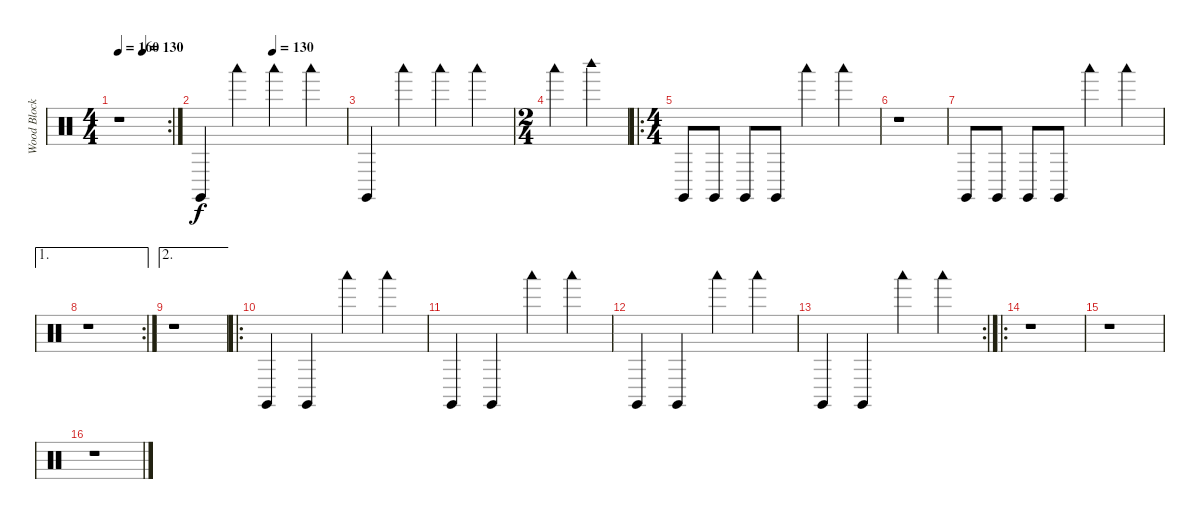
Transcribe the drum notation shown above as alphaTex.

\track ("Wood Blocks" "Wood Block") {instrument percussion}
\staff {score}
\articulation defaults
\rc 2
\ts (4 4)
\tempo 160
\tempo (130 0.5)
\clef neutral
\ks c
r.1{dy f} |
\tempo (130 0.5)
"Claves (hit)".4 "Woodblock low (hit)".4 "Woodblock low (hit)".4 "Woodblock low (hit)".4 |
"Claves (hit)".4 "Woodblock low (hit)".4 "Woodblock low (hit)".4 "Woodblock low (hit)".4 |
\ts (2 4)
"Woodblock low (hit)".4 "Woodblock high (hit)".4 |
\ro
\ts (4 4)
"Claves (hit)".8 "Claves (hit)".8 "Claves (hit)".8 "Claves (hit)".8 "Woodblock low (hit)".4 "Woodblock low (hit)".4 |
r.1 |
"Claves (hit)".8 "Claves (hit)".8 "Claves (hit)".8 "Claves (hit)".8 "Woodblock low (hit)".4 "Woodblock low (hit)".4 |
\ae 1
\rc 2
r.1 |
\ae 2
r.1 |
\ro "Claves (hit)".4 "Claves (hit)".4 "Woodblock low (hit)".4 "Woodblock low (hit)".4
|
"Claves (hit)".4 "Claves (hit)".4 "Woodblock low (hit)".4 "Woodblock low (hit)".4 |
"Claves (hit)".4 "Claves (hit)".4 "Woodblock low (hit)".4 "Woodblock low (hit)".4 |
\rc 2 "Claves (hit)".4 "Claves (hit)".4 "Woodblock low (hit)".4 "Woodblock low (hit)".4
|
\ro
r.1 |
r.1 |
r.1
